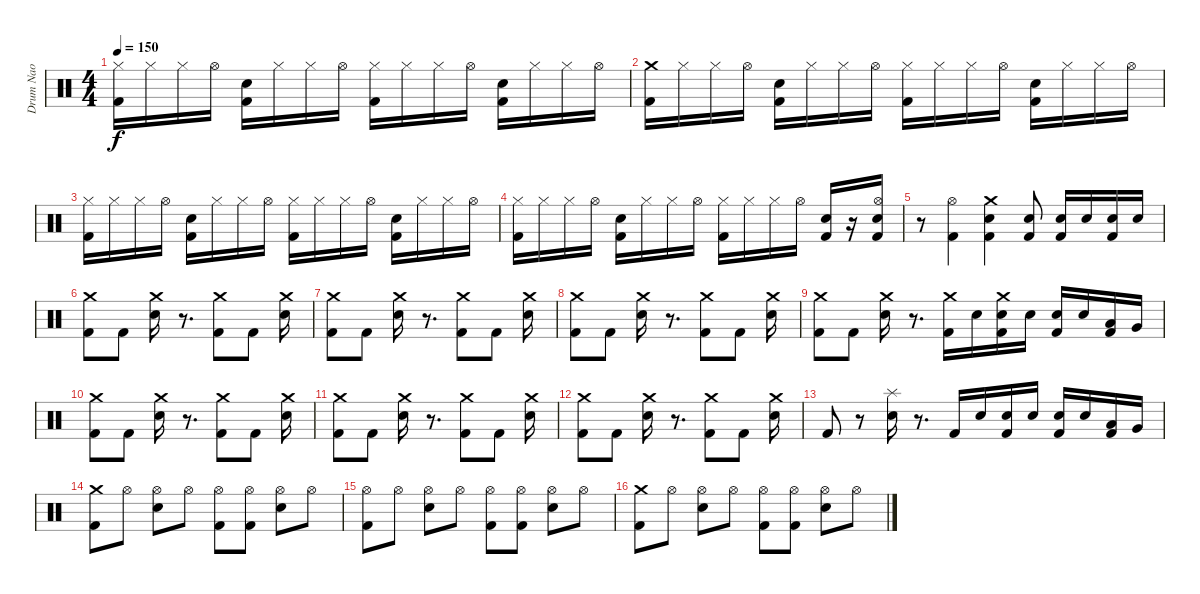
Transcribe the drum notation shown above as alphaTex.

\track ("Drum Nao" "Drum Nao") {instrument percussion}
\staff {score}
\articulation defaults
\ts (4 4)
\tempo 150
\clef neutral
\ks c
("Hi-Hat (closed)" "Kick (hit) 2").16{dy f} "Hi-Hat (closed)".16 "Hi-Hat (closed)".16 "Hi-Hat (open)".16 ("Electric Snare (hit)" "Kick (hit) 2").16 "Hi-Hat (closed)".16 "Hi-Hat (closed)".16 "Hi-Hat (open)".16 ("Hi-Hat (closed)" "Kick (hit) 2").16 "Hi-Hat (closed)".16 "Hi-Hat (closed)".16 "Hi-Hat (open)".16 ("Electric Snare (hit)" "Kick (hit) 2").16 "Hi-Hat (closed)".16 "Hi-Hat (closed)".16 "Hi-Hat (open)".16 |
("Crash medium (hit)" "Kick (hit) 2").16 "Hi-Hat (closed)".16 "Hi-Hat (closed)".16 "Hi-Hat (open)".16 ("Electric Snare (hit)" "Kick (hit) 2").16 "Hi-Hat (closed)".16 "Hi-Hat (closed)".16 "Hi-Hat (open)".16 ("Hi-Hat (closed)" "Kick (hit) 2").16 "Hi-Hat (closed)".16 "Hi-Hat (closed)".16 "Hi-Hat (open)".16 ("Electric Snare (hit)" "Kick (hit) 2").16 "Hi-Hat (closed)".16 "Hi-Hat (closed)".16 "Hi-Hat (open)".16 |
("Hi-Hat (closed)" "Kick (hit) 2").16 "Hi-Hat (closed)".16 "Hi-Hat (closed)".16 "Hi-Hat (open)".16 ("Electric Snare (hit)" "Kick (hit) 2").16 "Hi-Hat (closed)".16 "Hi-Hat (closed)".16 "Hi-Hat (open)".16 ("Hi-Hat (closed)" "Kick (hit) 2").16 "Hi-Hat (closed)".16 "Hi-Hat (closed)".16 "Hi-Hat (open)".16 ("Electric Snare (hit)" "Kick (hit) 2").16 "Hi-Hat (closed)".16 "Hi-Hat (closed)".16 "Hi-Hat (open)".16 |
("Hi-Hat (closed)" "Kick (hit) 2").16 "Hi-Hat (closed)".16 "Hi-Hat (closed)".16 "Hi-Hat (open)".16 ("Electric Snare (hit)" "Kick (hit) 2").16 "Hi-Hat (closed)".16 "Hi-Hat (closed)".16 "Hi-Hat (open)".16 ("Hi-Hat (closed)" "Kick (hit) 2").16 "Hi-Hat (closed)".16 "Hi-Hat (closed)".16 "Hi-Hat (open)".16 ("Electric Snare (hit)" "Kick (hit) 2").16 r.16 ("Hi-Hat (open)" "Electric Snare (hit)" "Kick (hit) 2").16 |
r.8 ("Hi-Hat (open)" "Kick (hit) 2").4 ("Crash medium (hit)" "Electric Snare (hit)" "Kick (hit) 2").4 ("Electric Snare (hit)" "Kick (hit) 2").8 ("Electric Snare (hit)" "Kick (hit) 2").16 "Electric Snare (hit)".16 ("Electric Snare (hit)" "Kick (hit) 2").16 "Electric Snare (hit)".16 |
("Crash medium (hit)" "Kick (hit) 2").8 "Kick (hit) 2".8 ("Crash medium (hit)" "Electric Snare (hit)").16 r.8{d} ("Crash medium (hit)" "Kick (hit) 2").8 "Kick (hit) 2".8 ("Crash medium (hit)" "Electric Snare (hit)").16 |
("Crash medium (hit)" "Kick (hit) 2").8 "Kick (hit) 2".8 ("Crash medium (hit)" "Electric Snare (hit)").16 r.8{d} ("Crash medium (hit)" "Kick (hit) 2").8 "Kick (hit) 2".8 ("Crash medium (hit)" "Electric Snare (hit)").16 |
("Crash medium (hit)" "Kick (hit) 2").8 "Kick (hit) 2".8 ("Crash medium (hit)" "Electric Snare (hit)").16 r.8{d} ("Crash medium (hit)" "Kick (hit) 2").8 "Kick (hit) 2".8 ("Crash medium (hit)" "Electric Snare (hit)").16 |
("Crash medium (hit)" "Kick (hit) 2").8 "Kick (hit) 2".8 ("Crash medium (hit)" "Electric Snare (hit)").16 r.8{d} ("Crash medium (hit)" "Kick (hit) 2").16 "Electric Snare (hit)".16 ("Crash medium (hit)" "Electric Snare (hit)" "Kick (hit) 2").16 "Electric Snare (hit)".16 ("Electric Snare (hit)" "Kick (hit) 2").16 "Electric Snare (hit)".16 ("Low Tom (hit)" "Kick (hit) 2").16 "Very Low Tom (hit)".16 |
("Crash medium (hit)" "Kick (hit) 2").8 "Kick (hit) 2".8 ("Crash medium (hit)" "Electric Snare (hit)").16 r.8{d} ("Crash medium (hit)" "Kick (hit) 2").8 "Kick (hit) 2".8 ("Crash medium (hit)" "Electric Snare (hit)").16 |
("Crash medium (hit)" "Kick (hit) 2").8 "Kick (hit) 2".8 ("Crash medium (hit)" "Electric Snare (hit)").16 r.8{d} ("Crash medium (hit)" "Kick (hit) 2").8 "Kick (hit) 2".8 ("Crash medium (hit)" "Electric Snare (hit)").16 |
("Crash medium (hit)" "Kick (hit) 2").8 "Kick (hit) 2".8 ("Crash medium (hit)" "Electric Snare (hit)").16 r.8{d} ("Crash medium (hit)" "Kick (hit) 2").8 "Kick (hit) 2".8 ("Crash medium (hit)" "Electric Snare (hit)").16 |
"Kick (hit) 2".8 r.8 ("Splash (hit)" "Electric Snare (hit)").16 r.8{d} "Kick (hit) 2".16 "Electric Snare (hit)".16 ("Electric Snare (hit)" "Kick (hit) 2").16 "Electric Snare (hit)".16 ("Electric Snare (hit)" "Kick (hit) 2").16 "Electric Snare (hit)".16 ("Low Tom (hit)" "Kick (hit) 2").16 "Very Low Tom (hit)".16 |
("Crash medium (hit)" "Kick (hit) 2").8 "Hi-Hat (open)".8 ("Hi-Hat (open)" "Electric Snare (hit)").8 "Hi-Hat (open)".8 ("Hi-Hat (open)" "Kick (hit) 2").8 ("Hi-Hat (open)" "Kick (hit) 2").8 ("Hi-Hat (open)" "Electric Snare (hit)").8 "Hi-Hat (open)".8 |
("Hi-Hat (open)" "Kick (hit) 2").8 "Hi-Hat (open)".8 ("Hi-Hat (open)" "Electric Snare (hit)").8 "Hi-Hat (open)".8 ("Hi-Hat (open)" "Kick (hit) 2").8 ("Hi-Hat (open)" "Kick (hit) 2").8 ("Hi-Hat (open)" "Electric Snare (hit)").8 "Hi-Hat (open)".8 |
("Crash medium (hit)" "Kick (hit) 2").8 "Hi-Hat (open)".8 ("Hi-Hat (open)" "Electric Snare (hit)").8 "Hi-Hat (open)".8 ("Hi-Hat (open)" "Kick (hit) 2").8 ("Hi-Hat (open)" "Kick (hit) 2").8 ("Hi-Hat (open)" "Electric Snare (hit)").8 "Hi-Hat (open)".8
